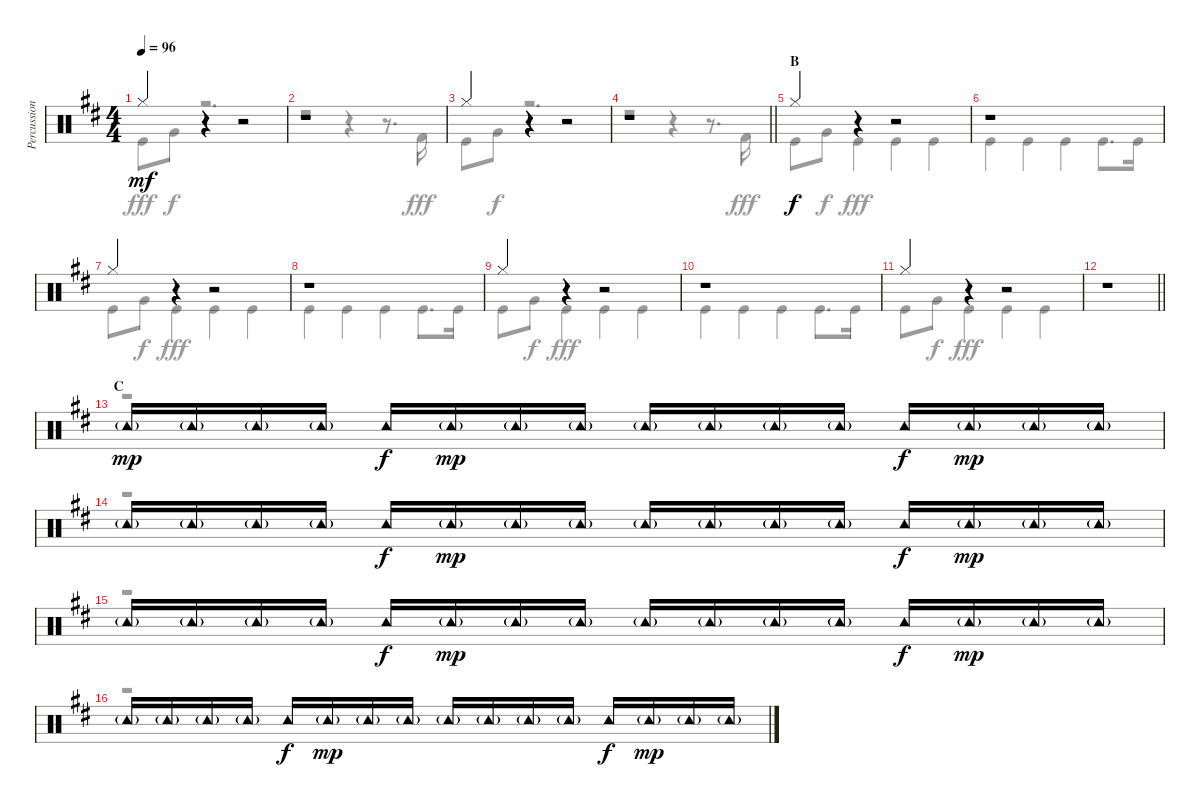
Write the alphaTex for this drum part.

\track ("Percussion" "Percussion") {instrument percussion}
\staff {score}
\articulation defaults
\voice
\ts (4 4)
\tempo 96
\clef neutral
\ks d "Hi-Hat (closed)".4{dy mf}
r.4 r.2 |
r.1 |
"Hi-Hat (closed)".4 r.4 r.2 |
\barLineRight lightlight
r.1 |
\section ("" "B")
"Hi-Hat (closed)".4{dy f} r.4 r.2 |
r.1 |
"Hi-Hat (closed)".4 r.4 r.2 |
r.1 |
"Hi-Hat (closed)".4 r.4 r.2 |
r.1 |
"Hi-Hat (closed)".4 r.4 r.2 |
\barLineRight lightlight
r.1 |
\section ("" "C")
"Tambourine (hit)"{g}.16{dy mp} "Tambourine (hit)"{g}.16 "Tambourine (hit)"{g}.16 "Tambourine (hit)"{g}.16 "Tambourine (hit)".16{dy f} "Tambourine (hit)"{g}.16{dy mp} "Tambourine (hit)"{g}.16 "Tambourine (hit)"{g}.16 "Tambourine (hit)"{g}.16 "Tambourine (hit)"{g}.16 "Tambourine (hit)"{g}.16 "Tambourine (hit)"{g}.16 "Tambourine (hit)".16{dy f} "Tambourine (hit)"{g}.16{dy mp} "Tambourine (hit)"{g}.16 "Tambourine (hit)"{g}.16 |
"Tambourine (hit)"{g}.16 "Tambourine (hit)"{g}.16 "Tambourine (hit)"{g}.16 "Tambourine (hit)"{g}.16 "Tambourine (hit)".16{dy f} "Tambourine (hit)"{g}.16{dy mp} "Tambourine (hit)"{g}.16 "Tambourine (hit)"{g}.16 "Tambourine (hit)"{g}.16 "Tambourine (hit)"{g}.16 "Tambourine (hit)"{g}.16 "Tambourine (hit)"{g}.16 "Tambourine (hit)".16{dy f} "Tambourine (hit)"{g}.16{dy mp} "Tambourine (hit)"{g}.16 "Tambourine (hit)"{g}.16 |
"Tambourine (hit)"{g}.16 "Tambourine (hit)"{g}.16 "Tambourine (hit)"{g}.16 "Tambourine (hit)"{g}.16 "Tambourine (hit)".16{dy f} "Tambourine (hit)"{g}.16{dy mp} "Tambourine (hit)"{g}.16 "Tambourine (hit)"{g}.16 "Tambourine (hit)"{g}.16 "Tambourine (hit)"{g}.16 "Tambourine (hit)"{g}.16 "Tambourine (hit)"{g}.16 "Tambourine (hit)".16{dy f} "Tambourine (hit)"{g}.16{dy mp} "Tambourine (hit)"{g}.16 "Tambourine (hit)"{g}.16 |
"Tambourine (hit)"{g}.16 "Tambourine (hit)"{g}.16 "Tambourine (hit)"{g}.16 "Tambourine (hit)"{g}.16 "Tambourine (hit)".16{dy f} "Tambourine (hit)"{g}.16{dy mp} "Tambourine (hit)"{g}.16 "Tambourine (hit)"{g}.16 "Tambourine (hit)"{g}.16 "Tambourine (hit)"{g}.16 "Tambourine (hit)"{g}.16 "Tambourine (hit)"{g}.16 "Tambourine (hit)".16{dy f} "Tambourine (hit)"{g}.16{dy mp} "Tambourine (hit)"{g}.16 "Tambourine (hit)"{g}.16
\voice
\clef neutral
\ottava regular
\simile none
\ks d "Kick (hit)".8{dy fff} "Very Low Tom (hit)".8{dy f}
r.2{d} |
r.2 r.4 r.8{d} "Kick (hit) 2".16{dy fff} |
"Kick (hit)".8 "Very Low Tom (hit)".8{dy f} r.2{d} |
\barLineRight lightlight
r.2 r.4 r.8{d} "Kick (hit) 2".16{dy fff} |
"Kick (hit)".8 "Very Low Tom (hit)".8{dy f} "Kick (hit)".4{dy fff} "Kick (hit)".4 "Kick (hit)".4 |
"Kick (hit)".4 "Kick (hit)".4 "Kick (hit)".4 "Kick (hit)".8{d} "Kick (hit)".16 |
"Kick (hit)".8 "Very Low Tom (hit)".8{dy f} "Kick (hit)".4{dy fff} "Kick (hit)".4 "Kick (hit)".4 |
"Kick (hit)".4 "Kick (hit)".4 "Kick (hit)".4 "Kick (hit)".8{d} "Kick (hit)".16 |
"Kick (hit)".8 "Very Low Tom (hit)".8{dy f} "Kick (hit)".4{dy fff} "Kick (hit)".4 "Kick (hit)".4 |
"Kick (hit)".4 "Kick (hit)".4 "Kick (hit)".4 "Kick (hit)".8{d} "Kick (hit)".16 |
"Kick (hit)".8 "Very Low Tom (hit)".8{dy f} "Kick (hit)".4{dy fff} "Kick (hit)".4 "Kick (hit)".4 |
\barLineRight lightlight
r.1 |
r.1 |
r.1 |
r.1 |
r.1
